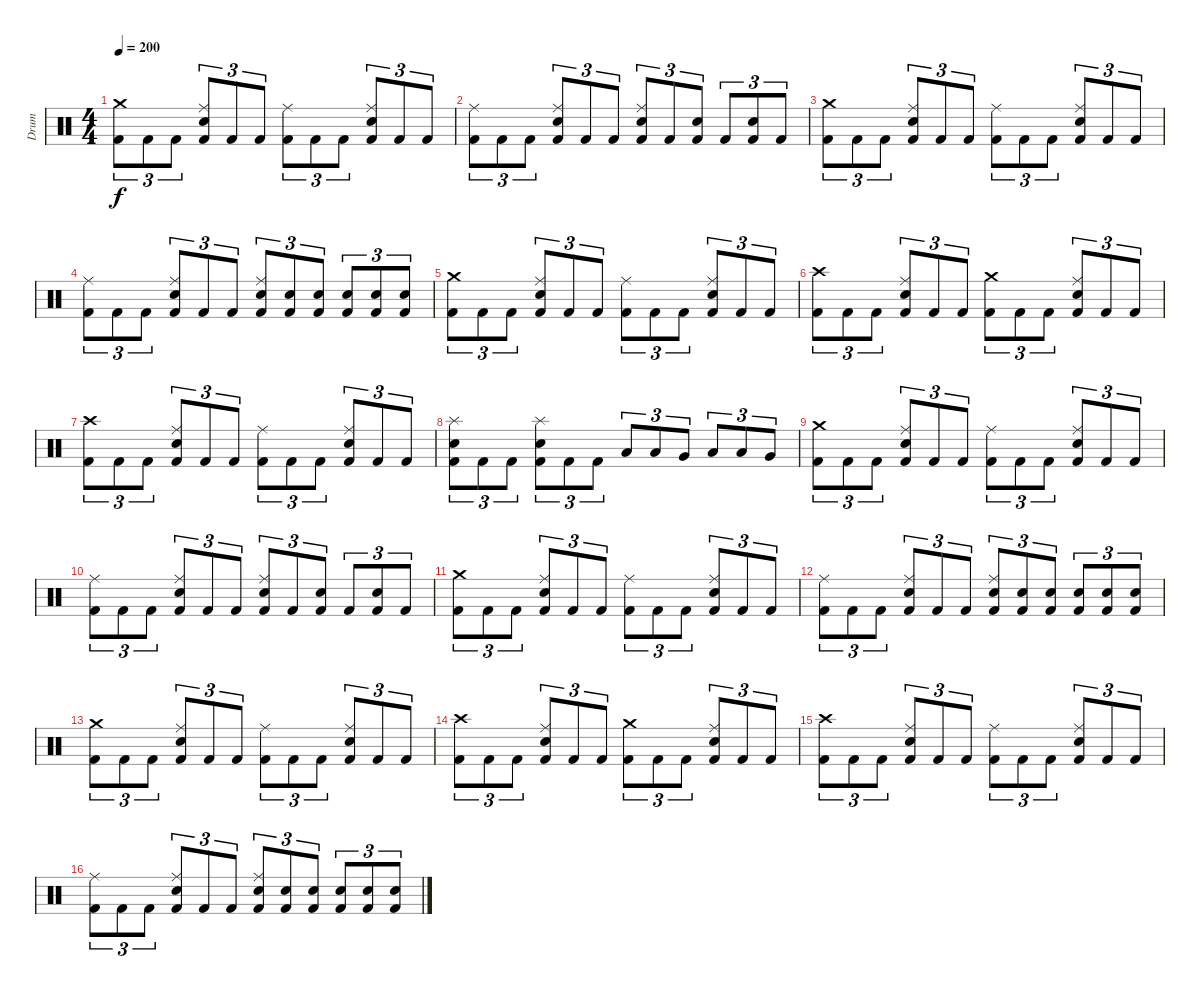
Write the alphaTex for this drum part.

\track ("Drum" "Drum") {instrument percussion}
\staff {score}
\articulation defaults
\ts (4 4)
\tempo 200
\clef neutral
\ks c
("Crash medium (hit)" "Kick (hit) 2").8{tu (3 2) dy f} "Kick (hit) 2".8{tu (3 2)} "Kick (hit) 2".8{tu (3 2)} ("Ride (middle)" "Electric Snare (hit)" "Kick (hit) 2").8{tu (3 2)} "Kick (hit) 2".8{tu (3 2)} "Kick (hit) 2".8{tu (3 2)} ("Ride (middle)" "Kick (hit) 2").8{tu (3 2)} "Kick (hit) 2".8{tu (3 2)} "Kick (hit) 2".8{tu (3 2)} ("Ride (middle)" "Electric Snare (hit)" "Kick (hit) 2").8{tu (3 2)} "Kick (hit) 2".8{tu (3 2)} "Kick (hit) 2".8{tu (3 2)} |
("Ride (middle)" "Kick (hit) 2").8{tu (3 2)} "Kick (hit) 2".8{tu (3 2)} "Kick (hit) 2".8{tu (3 2)} ("Ride (middle)" "Electric Snare (hit)" "Kick (hit) 2").8{tu (3 2)} "Kick (hit) 2".8{tu (3 2)} "Kick (hit) 2".8{tu (3 2)} ("Ride (middle)" "Electric Snare (hit)" "Kick (hit) 2").8{tu (3 2)} "Kick (hit) 2".8{tu (3 2)} ("Electric Snare (hit)" "Kick (hit) 2").8{tu (3 2)} "Kick (hit) 2".8{tu (3 2)} ("Electric Snare (hit)" "Kick (hit) 2").8{tu (3 2)} "Kick (hit) 2".8{tu (3 2)} |
("Crash medium (hit)" "Kick (hit) 2").8{tu (3 2)} "Kick (hit) 2".8{tu (3 2)} "Kick (hit) 2".8{tu (3 2)} ("Ride (middle)" "Electric Snare (hit)" "Kick (hit) 2").8{tu (3 2)} "Kick (hit) 2".8{tu (3 2)} "Kick (hit) 2".8{tu (3 2)} ("Ride (middle)" "Kick (hit) 2").8{tu (3 2)} "Kick (hit) 2".8{tu (3 2)} "Kick (hit) 2".8{tu (3 2)} ("Ride (middle)" "Electric Snare (hit)" "Kick (hit) 2").8{tu (3 2)} "Kick (hit) 2".8{tu (3 2)} "Kick (hit) 2".8{tu (3 2)} |
("Ride (middle)" "Kick (hit) 2").8{tu (3 2)} "Kick (hit) 2".8{tu (3 2)} "Kick (hit) 2".8{tu (3 2)} ("Ride (middle)" "Electric Snare (hit)" "Kick (hit) 2").8{tu (3 2)} "Kick (hit) 2".8{tu (3 2)} "Kick (hit) 2".8{tu (3 2)} ("Ride (middle)" "Electric Snare (hit)" "Kick (hit) 2").8{tu (3 2)} ("Electric Snare (hit)" "Kick (hit) 2").8{tu (3 2)} ("Electric Snare (hit)" "Kick (hit) 2").8{tu (3 2)} ("Electric Snare (hit)" "Kick (hit) 2").8{tu (3 2)} ("Electric Snare (hit)" "Kick (hit) 2").8{tu (3 2)} ("Electric Snare (hit)" "Kick (hit) 2").8{tu (3 2)} |
("Crash medium (hit)" "Kick (hit) 2").8{tu (3 2)} "Kick (hit) 2".8{tu (3 2)} "Kick (hit) 2".8{tu (3 2)} ("Ride (middle)" "Electric Snare (hit)" "Kick (hit) 2").8{tu (3 2)} "Kick (hit) 2".8{tu (3 2)} "Kick (hit) 2".8{tu (3 2)} ("Ride (middle)" "Kick (hit) 2").8{tu (3 2)} "Kick (hit) 2".8{tu (3 2)} "Kick (hit) 2".8{tu (3 2)} ("Ride (middle)" "Electric Snare (hit)" "Kick (hit) 2").8{tu (3 2)} "Kick (hit) 2".8{tu (3 2)} "Kick (hit) 2".8{tu (3 2)} |
("Crash high (hit)" "Kick (hit) 2").8{tu (3 2)} "Kick (hit) 2".8{tu (3 2)} "Kick (hit) 2".8{tu (3 2)} ("Ride (middle)" "Electric Snare (hit)" "Kick (hit) 2").8{tu (3 2)} "Kick (hit) 2".8{tu (3 2)} "Kick (hit) 2".8{tu (3 2)} ("Crash medium (hit)" "Kick (hit) 2").8{tu (3 2)} "Kick (hit) 2".8{tu (3 2)} "Kick (hit) 2".8{tu (3 2)} ("Ride (middle)" "Electric Snare (hit)" "Kick (hit) 2").8{tu (3 2)} "Kick (hit) 2".8{tu (3 2)} "Kick (hit) 2".8{tu (3 2)} |
("Crash high (hit)" "Kick (hit) 2").8{tu (3 2)} "Kick (hit) 2".8{tu (3 2)} "Kick (hit) 2".8{tu (3 2)} ("Ride (middle)" "Electric Snare (hit)" "Kick (hit) 2").8{tu (3 2)} "Kick (hit) 2".8{tu (3 2)} "Kick (hit) 2".8{tu (3 2)} ("Ride (middle)" "Kick (hit) 2").8{tu (3 2)} "Kick (hit) 2".8{tu (3 2)} "Kick (hit) 2".8{tu (3 2)} ("Ride (middle)" "Electric Snare (hit)" "Kick (hit) 2").8{tu (3 2)} "Kick (hit) 2".8{tu (3 2)} "Kick (hit) 2".8{tu (3 2)} |
("Splash (hit)" "Electric Snare (hit)" "Kick (hit) 2").8{tu (3 2)} "Kick (hit) 2".8{tu (3 2)} "Kick (hit) 2".8{tu (3 2)} ("Splash (hit)" "Electric Snare (hit)" "Kick (hit) 2").8{tu (3 2)} "Kick (hit) 2".8{tu (3 2)} "Kick (hit) 2".8{tu (3 2)} "Low Tom (hit)".8{tu (3 2)} "Low Tom (hit)".8{tu (3 2)} "Very Low Tom (hit)".8{tu (3 2)} "Low Tom (hit)".8{tu (3 2)} "Low Tom (hit)".8{tu (3 2)} "Very Low Tom (hit)".8{tu (3 2)} |
("Crash medium (hit)" "Kick (hit) 2").8{tu (3 2)} "Kick (hit) 2".8{tu (3 2)} "Kick (hit) 2".8{tu (3 2)} ("Ride (middle)" "Electric Snare (hit)" "Kick (hit) 2").8{tu (3 2)} "Kick (hit) 2".8{tu (3 2)} "Kick (hit) 2".8{tu (3 2)} ("Ride (middle)" "Kick (hit) 2").8{tu (3 2)} "Kick (hit) 2".8{tu (3 2)} "Kick (hit) 2".8{tu (3 2)} ("Ride (middle)" "Electric Snare (hit)" "Kick (hit) 2").8{tu (3 2)} "Kick (hit) 2".8{tu (3 2)} "Kick (hit) 2".8{tu (3 2)} |
("Ride (middle)" "Kick (hit) 2").8{tu (3 2)} "Kick (hit) 2".8{tu (3 2)} "Kick (hit) 2".8{tu (3 2)} ("Ride (middle)" "Electric Snare (hit)" "Kick (hit) 2").8{tu (3 2)} "Kick (hit) 2".8{tu (3 2)} "Kick (hit) 2".8{tu (3 2)} ("Ride (middle)" "Electric Snare (hit)" "Kick (hit) 2").8{tu (3 2)} "Kick (hit) 2".8{tu (3 2)} ("Electric Snare (hit)" "Kick (hit) 2").8{tu (3 2)} "Kick (hit) 2".8{tu (3 2)} ("Electric Snare (hit)" "Kick (hit) 2").8{tu (3 2)} "Kick (hit) 2".8{tu (3 2)} |
("Crash medium (hit)" "Kick (hit) 2").8{tu (3 2)} "Kick (hit) 2".8{tu (3 2)} "Kick (hit) 2".8{tu (3 2)} ("Ride (middle)" "Electric Snare (hit)" "Kick (hit) 2").8{tu (3 2)} "Kick (hit) 2".8{tu (3 2)} "Kick (hit) 2".8{tu (3 2)} ("Ride (middle)" "Kick (hit) 2").8{tu (3 2)} "Kick (hit) 2".8{tu (3 2)} "Kick (hit) 2".8{tu (3 2)} ("Ride (middle)" "Electric Snare (hit)" "Kick (hit) 2").8{tu (3 2)} "Kick (hit) 2".8{tu (3 2)} "Kick (hit) 2".8{tu (3 2)} |
("Ride (middle)" "Kick (hit) 2").8{tu (3 2)} "Kick (hit) 2".8{tu (3 2)} "Kick (hit) 2".8{tu (3 2)} ("Ride (middle)" "Electric Snare (hit)" "Kick (hit) 2").8{tu (3 2)} "Kick (hit) 2".8{tu (3 2)} "Kick (hit) 2".8{tu (3 2)} ("Ride (middle)" "Electric Snare (hit)" "Kick (hit) 2").8{tu (3 2)} ("Electric Snare (hit)" "Kick (hit) 2").8{tu (3 2)} ("Electric Snare (hit)" "Kick (hit) 2").8{tu (3 2)} ("Electric Snare (hit)" "Kick (hit) 2").8{tu (3 2)} ("Electric Snare (hit)" "Kick (hit) 2").8{tu (3 2)} ("Electric Snare (hit)" "Kick (hit) 2").8{tu (3 2)} |
("Crash medium (hit)" "Kick (hit) 2").8{tu (3 2)} "Kick (hit) 2".8{tu (3 2)} "Kick (hit) 2".8{tu (3 2)} ("Ride (middle)" "Electric Snare (hit)" "Kick (hit) 2").8{tu (3 2)} "Kick (hit) 2".8{tu (3 2)} "Kick (hit) 2".8{tu (3 2)} ("Ride (middle)" "Kick (hit) 2").8{tu (3 2)} "Kick (hit) 2".8{tu (3 2)} "Kick (hit) 2".8{tu (3 2)} ("Ride (middle)" "Electric Snare (hit)" "Kick (hit) 2").8{tu (3 2)} "Kick (hit) 2".8{tu (3 2)} "Kick (hit) 2".8{tu (3 2)} |
("Crash high (hit)" "Kick (hit) 2").8{tu (3 2)} "Kick (hit) 2".8{tu (3 2)} "Kick (hit) 2".8{tu (3 2)} ("Ride (middle)" "Electric Snare (hit)" "Kick (hit) 2").8{tu (3 2)} "Kick (hit) 2".8{tu (3 2)} "Kick (hit) 2".8{tu (3 2)} ("Crash medium (hit)" "Kick (hit) 2").8{tu (3 2)} "Kick (hit) 2".8{tu (3 2)} "Kick (hit) 2".8{tu (3 2)} ("Ride (middle)" "Electric Snare (hit)" "Kick (hit) 2").8{tu (3 2)} "Kick (hit) 2".8{tu (3 2)} "Kick (hit) 2".8{tu (3 2)} |
("Crash high (hit)" "Kick (hit) 2").8{tu (3 2)} "Kick (hit) 2".8{tu (3 2)} "Kick (hit) 2".8{tu (3 2)} ("Ride (middle)" "Electric Snare (hit)" "Kick (hit) 2").8{tu (3 2)} "Kick (hit) 2".8{tu (3 2)} "Kick (hit) 2".8{tu (3 2)} ("Ride (middle)" "Kick (hit) 2").8{tu (3 2)} "Kick (hit) 2".8{tu (3 2)} "Kick (hit) 2".8{tu (3 2)} ("Ride (middle)" "Electric Snare (hit)" "Kick (hit) 2").8{tu (3 2)} "Kick (hit) 2".8{tu (3 2)} "Kick (hit) 2".8{tu (3 2)} |
("Ride (middle)" "Kick (hit) 2").8{tu (3 2)} "Kick (hit) 2".8{tu (3 2)} "Kick (hit) 2".8{tu (3 2)} ("Ride (middle)" "Electric Snare (hit)" "Kick (hit) 2").8{tu (3 2)} "Kick (hit) 2".8{tu (3 2)} "Kick (hit) 2".8{tu (3 2)} ("Ride (middle)" "Electric Snare (hit)" "Kick (hit) 2").8{tu (3 2)} ("Electric Snare (hit)" "Kick (hit) 2").8{tu (3 2)} ("Electric Snare (hit)" "Kick (hit) 2").8{tu (3 2)} ("Electric Snare (hit)" "Kick (hit) 2").8{tu (3 2)} ("Electric Snare (hit)" "Kick (hit) 2").8{tu (3 2)} ("Electric Snare (hit)" "Kick (hit) 2").8{tu (3 2)}
